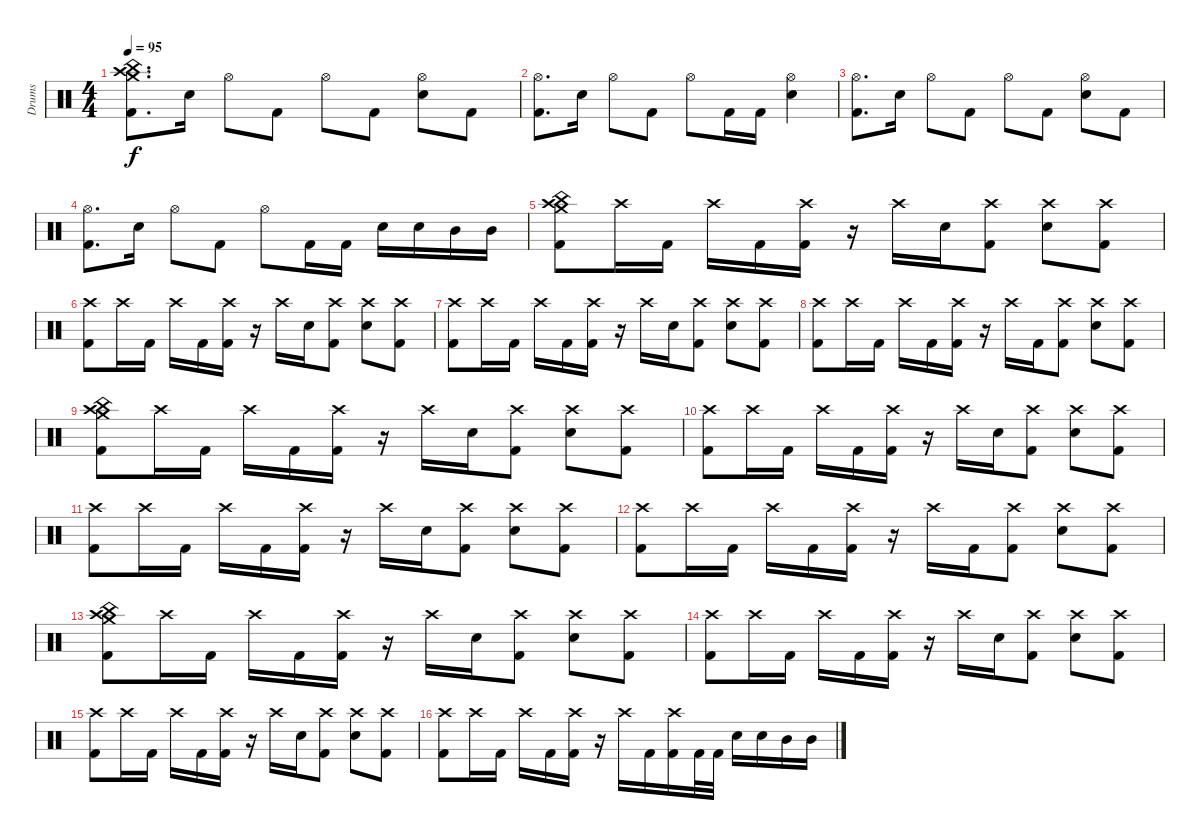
\track ("Drums" "Drums") {instrument percussion}
\staff {score}
\articulation defaults
\ts (4 4)
\tempo 95
\clef neutral
\ks c
("Crash high (hit)" "Crash medium (hit)" "China (hit)" "Kick (hit) 2").8{d dy f} "Electric Snare (hit)".16 "Hi-Hat (open)".8 "Kick (hit) 2".8 "Hi-Hat (open)".8 "Kick (hit) 2".8 ("Hi-Hat (open)" "Electric Snare (hit)").8 "Kick (hit) 2".8 |
("Hi-Hat (open)" "Kick (hit) 2").8{d} "Electric Snare (hit)".16 "Hi-Hat (open)".8 "Kick (hit) 2".8 "Hi-Hat (open)".8 "Kick (hit) 2".16 "Kick (hit) 2".16 ("Hi-Hat (open)" "Electric Snare (hit)").4 |
("Hi-Hat (open)" "Kick (hit) 2").8{d} "Electric Snare (hit)".16 "Hi-Hat (open)".8 "Kick (hit) 2".8 "Hi-Hat (open)".8 "Kick (hit) 2".8 ("Hi-Hat (open)" "Electric Snare (hit)").8 "Kick (hit) 2".8 |
("Hi-Hat (open)" "Kick (hit) 2").8{d} "Electric Snare (hit)".16 "Hi-Hat (open)".8 "Kick (hit) 2".8 "Hi-Hat (open)".8 "Kick (hit) 2".16 "Kick (hit) 2".16 "Electric Snare (hit)".16 "Electric Snare (hit)".16 "Mid Tom (hit)".16 "Mid Tom (hit)".16 |
("Crash medium (hit)" "Crash high (hit)" "China (hit)" "Kick (hit) 2").8 "Crash high (hit)".16 "Kick (hit) 2".16 "Crash high (hit)".16 "Kick (hit) 2".16 ("Crash high (hit)" "Kick (hit) 2").16 r.16 "Crash high (hit)".16 "Electric Snare (hit)".16 ("Crash high (hit)" "Kick (hit) 2").8 ("Crash high (hit)" "Electric Snare (hit)").8 ("Crash high (hit)" "Kick (hit) 2").8 |
("Crash high (hit)" "Kick (hit) 2").8 "Crash high (hit)".16 "Kick (hit) 2".16 "Crash high (hit)".16 "Kick (hit) 2".16 ("Crash high (hit)" "Kick (hit) 2").16 r.16 "Crash high (hit)".16 "Electric Snare (hit)".16 ("Crash high (hit)" "Kick (hit) 2").8 ("Crash high (hit)" "Electric Snare (hit)").8 ("Crash high (hit)" "Kick (hit) 2").8 |
("Crash high (hit)" "Kick (hit) 2").8 "Crash high (hit)".16 "Kick (hit) 2".16 "Crash high (hit)".16 "Kick (hit) 2".16 ("Crash high (hit)" "Kick (hit) 2").16 r.16 "Crash high (hit)".16 "Electric Snare (hit)".16 ("Crash high (hit)" "Kick (hit) 2").8 ("Crash high (hit)" "Electric Snare (hit)").8 ("Crash high (hit)" "Kick (hit) 2").8 |
("Crash high (hit)" "Kick (hit) 2").8 "Crash high (hit)".16 "Kick (hit) 2".16 "Crash high (hit)".16 "Kick (hit) 2".16 ("Crash high (hit)" "Kick (hit) 2").16 r.16 "Crash high (hit)".16 "Kick (hit) 2".16 ("Crash high (hit)" "Kick (hit) 2").8 ("Crash high (hit)" "Electric Snare (hit)").8 ("Crash high (hit)" "Kick (hit) 2").8 |
("Crash medium (hit)" "Crash high (hit)" "China (hit)" "Kick (hit) 2").8 "Crash high (hit)".16 "Kick (hit) 2".16 "Crash high (hit)".16 "Kick (hit) 2".16 ("Crash high (hit)" "Kick (hit) 2").16 r.16 "Crash high (hit)".16 "Electric Snare (hit)".16 ("Crash high (hit)" "Kick (hit) 2").8 ("Crash high (hit)" "Electric Snare (hit)").8 ("Crash high (hit)" "Kick (hit) 2").8 |
("Crash high (hit)" "Kick (hit) 2").8 "Crash high (hit)".16 "Kick (hit) 2".16 "Crash high (hit)".16 "Kick (hit) 2".16 ("Crash high (hit)" "Kick (hit) 2").16 r.16 "Crash high (hit)".16 "Electric Snare (hit)".16 ("Crash high (hit)" "Kick (hit) 2").8 ("Crash high (hit)" "Electric Snare (hit)").8 ("Crash high (hit)" "Kick (hit) 2").8 |
("Crash high (hit)" "Kick (hit) 2").8 "Crash high (hit)".16 "Kick (hit) 2".16 "Crash high (hit)".16 "Kick (hit) 2".16 ("Crash high (hit)" "Kick (hit) 2").16 r.16 "Crash high (hit)".16 "Electric Snare (hit)".16 ("Crash high (hit)" "Kick (hit) 2").8 ("Crash high (hit)" "Electric Snare (hit)").8 ("Crash high (hit)" "Kick (hit) 2").8 |
("Crash high (hit)" "Kick (hit) 2").8 "Crash high (hit)".16 "Kick (hit) 2".16 "Crash high (hit)".16 "Kick (hit) 2".16 ("Crash high (hit)" "Kick (hit) 2").16 r.16 "Crash high (hit)".16 "Kick (hit) 2".16 ("Crash high (hit)" "Kick (hit) 2").8 ("Crash high (hit)" "Electric Snare (hit)").8 ("Crash high (hit)" "Kick (hit) 2").8 |
("Crash medium (hit)" "Crash high (hit)" "China (hit)" "Kick (hit) 2").8 "Crash high (hit)".16 "Kick (hit) 2".16 "Crash high (hit)".16 "Kick (hit) 2".16 ("Crash high (hit)" "Kick (hit) 2").16 r.16 "Crash high (hit)".16 "Electric Snare (hit)".16 ("Crash high (hit)" "Kick (hit) 2").8 ("Crash high (hit)" "Electric Snare (hit)").8 ("Crash high (hit)" "Kick (hit) 2").8 |
("Crash high (hit)" "Kick (hit) 2").8 "Crash high (hit)".16 "Kick (hit) 2".16 "Crash high (hit)".16 "Kick (hit) 2".16 ("Crash high (hit)" "Kick (hit) 2").16 r.16 "Crash high (hit)".16 "Electric Snare (hit)".16 ("Crash high (hit)" "Kick (hit) 2").8 ("Crash high (hit)" "Electric Snare (hit)").8 ("Crash high (hit)" "Kick (hit) 2").8 |
("Crash high (hit)" "Kick (hit) 2").8 "Crash high (hit)".16 "Kick (hit) 2".16 "Crash high (hit)".16 "Kick (hit) 2".16 ("Crash high (hit)" "Kick (hit) 2").16 r.16 "Crash high (hit)".16 "Electric Snare (hit)".16 ("Crash high (hit)" "Kick (hit) 2").8 ("Crash high (hit)" "Electric Snare (hit)").8 ("Crash high (hit)" "Kick (hit) 2").8 |
("Crash high (hit)" "Kick (hit) 2").8 "Crash high (hit)".16 "Kick (hit) 2".16 "Crash high (hit)".16 "Kick (hit) 2".16 ("Crash high (hit)" "Kick (hit) 2").16 r.16 "Crash high (hit)".16 "Kick (hit) 2".16 ("Crash high (hit)" "Kick (hit) 2").16 "Kick (hit) 2".32 "Kick (hit) 2".32 "Electric Snare (hit)".16 "Electric Snare (hit)".16 "Mid Tom (hit)".16 "Mid Tom (hit)".16
